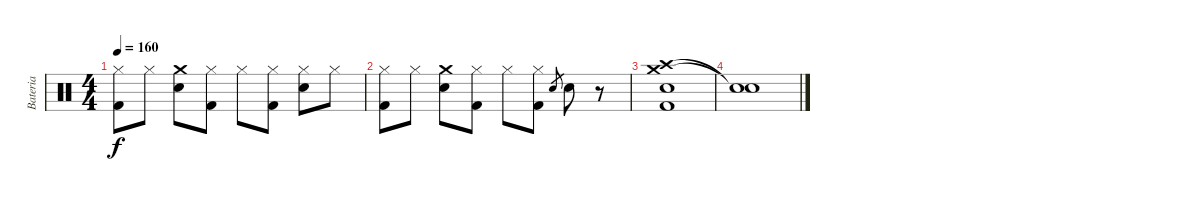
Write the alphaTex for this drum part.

\track ("Bateria" "Bateria") {instrument percussion}
\staff {score}
\articulation defaults
\ts (4 4)
\tempo 160
\clef neutral
\ks c
("Hi-Hat (closed)" "Kick (hit) 2").8{dy f} "Hi-Hat (closed)".8 ("Crash medium (hit)" "Electric Snare (hit)").8 ("Hi-Hat (closed)" "Kick (hit) 2").8 "Hi-Hat (closed)".8 ("Hi-Hat (closed)" "Kick (hit) 2").8 ("Hi-Hat (closed)" "Electric Snare (hit)").8 "Hi-Hat (closed)".8 |
("Hi-Hat (closed)" "Kick (hit) 2").8 "Hi-Hat (closed)".8 ("Crash medium (hit)" "Electric Snare (hit)").8 ("Hi-Hat (closed)" "Kick (hit) 2").8 "Hi-Hat (closed)".8 ("Hi-Hat (closed)" "Kick (hit) 2").8 "Electric Snare (hit)".8{gr} "Electric Snare (hit)".8 r.8 |
("Crash medium (hit)" "Crash high (hit)" "Electric Snare (hit)" "Kick (hit) 2").1 |
("Snare (hit)"{t} "Snare (hit)"{t}).1
